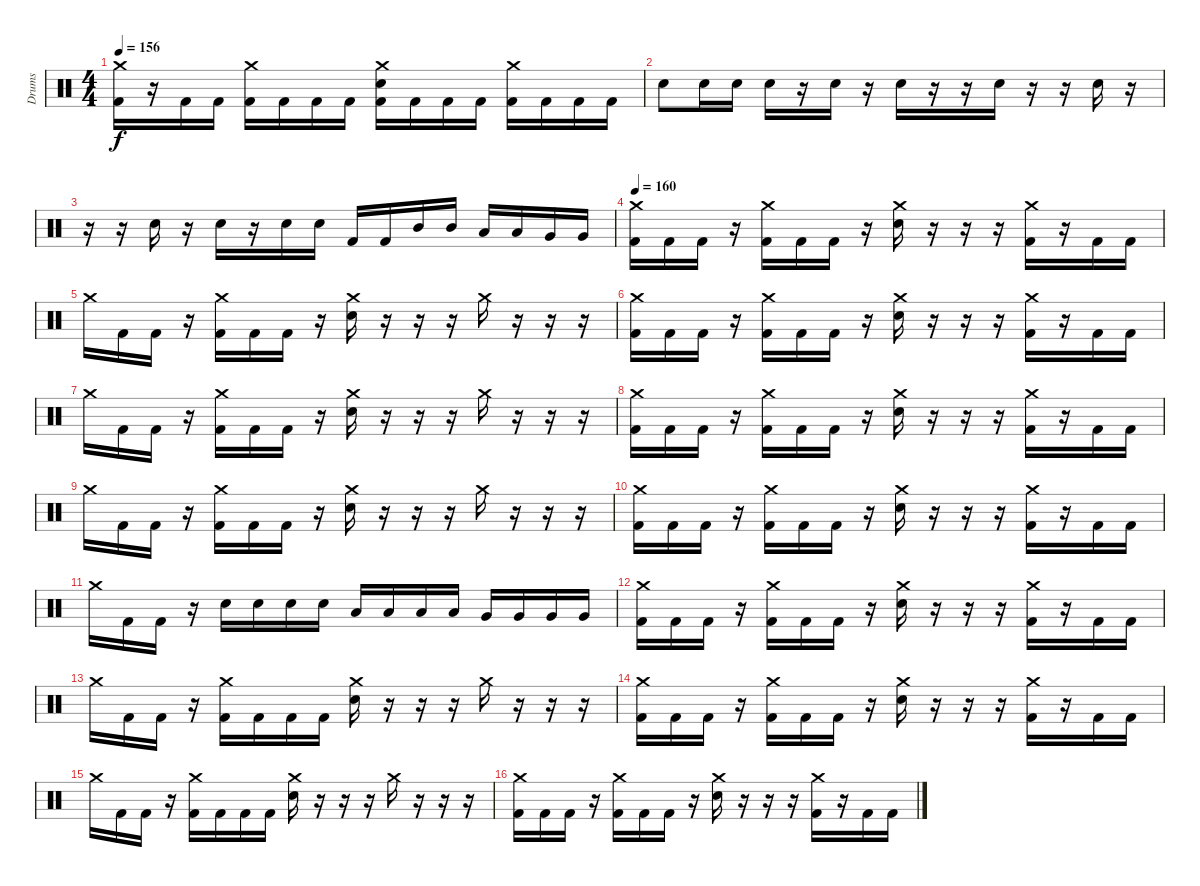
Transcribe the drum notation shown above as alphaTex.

\track ("Drums" "Drums") {instrument percussion}
\staff {score}
\articulation defaults
\ts (4 4)
\tempo 156
\clef neutral
\ks c
("Crash medium (hit)" "Kick (hit) 2").16{dy f} r.16 "Kick (hit) 2".16 "Kick (hit) 2".16 ("Crash medium (hit)" "Kick (hit) 2").16 "Kick (hit) 2".16 "Kick (hit) 2".16 "Kick (hit) 2".16 ("Crash medium (hit)" "Electric Snare (hit)" "Kick (hit) 2").16 "Kick (hit) 2".16 "Kick (hit) 2".16 "Kick (hit) 2".16 ("Crash medium (hit)" "Kick (hit) 2").16 "Kick (hit) 2".16 "Kick (hit) 2".16 "Kick (hit) 2".16 |
"Electric Snare (hit)".8 "Electric Snare (hit)".16 "Electric Snare (hit)".16 "Electric Snare (hit)".16 r.16 "Electric Snare (hit)".16 r.16 "Electric Snare (hit)".16 r.16 r.16 "Electric Snare (hit)".16 r.16 r.16 "Electric Snare (hit)".16 r.16 |
r.16 r.16 "Electric Snare (hit)".16 r.16 "Electric Snare (hit)".16 r.16 "Electric Snare (hit)".16 "Electric Snare (hit)".16 "Kick (hit) 2".16 "Kick (hit) 2".16 "Mid Tom (hit)".16 "Mid Tom (hit)".16 "Low Tom (hit)".16 "Low Tom (hit)".16 "Very Low Tom (hit)".16 "Very Low Tom (hit)".16 |
\tempo 160
("Crash medium (hit)" "Kick (hit) 2").16 "Kick (hit) 2".16 "Kick (hit) 2".16 r.16 ("Crash medium (hit)" "Kick (hit) 2").16 "Kick (hit) 2".16 "Kick (hit) 2".16 r.16 ("Crash medium (hit)" "Electric Snare (hit)").16 r.16 r.16 r.16 ("Crash medium (hit)" "Kick (hit) 2").16 r.16 "Kick (hit) 2".16 "Kick (hit) 2".16 |
"Crash medium (hit)".16 "Kick (hit) 2".16 "Kick (hit) 2".16 r.16 ("Crash medium (hit)" "Kick (hit) 2").16 "Kick (hit) 2".16 "Kick (hit) 2".16 r.16 ("Crash medium (hit)" "Electric Snare (hit)").16 r.16 r.16 r.16 "Crash medium (hit)".16 r.16 r.16 r.16 |
("Crash medium (hit)" "Kick (hit) 2").16 "Kick (hit) 2".16 "Kick (hit) 2".16 r.16 ("Crash medium (hit)" "Kick (hit) 2").16 "Kick (hit) 2".16 "Kick (hit) 2".16 r.16 ("Crash medium (hit)" "Electric Snare (hit)").16 r.16 r.16 r.16 ("Crash medium (hit)" "Kick (hit) 2").16 r.16 "Kick (hit) 2".16 "Kick (hit) 2".16 |
"Crash medium (hit)".16 "Kick (hit) 2".16 "Kick (hit) 2".16 r.16 ("Crash medium (hit)" "Kick (hit) 2").16 "Kick (hit) 2".16 "Kick (hit) 2".16 r.16 ("Crash medium (hit)" "Electric Snare (hit)").16 r.16 r.16 r.16 "Crash medium (hit)".16 r.16 r.16 r.16 |
("Crash medium (hit)" "Kick (hit) 2").16 "Kick (hit) 2".16 "Kick (hit) 2".16 r.16 ("Crash medium (hit)" "Kick (hit) 2").16 "Kick (hit) 2".16 "Kick (hit) 2".16 r.16 ("Crash medium (hit)" "Electric Snare (hit)").16 r.16 r.16 r.16 ("Crash medium (hit)" "Kick (hit) 2").16 r.16 "Kick (hit) 2".16 "Kick (hit) 2".16 |
"Crash medium (hit)".16 "Kick (hit) 2".16 "Kick (hit) 2".16 r.16 ("Crash medium (hit)" "Kick (hit) 2").16 "Kick (hit) 2".16 "Kick (hit) 2".16 r.16 ("Crash medium (hit)" "Electric Snare (hit)").16 r.16 r.16 r.16 "Crash medium (hit)".16 r.16 r.16 r.16 |
("Crash medium (hit)" "Kick (hit) 2").16 "Kick (hit) 2".16 "Kick (hit) 2".16 r.16 ("Crash medium (hit)" "Kick (hit) 2").16 "Kick (hit) 2".16 "Kick (hit) 2".16 r.16 ("Crash medium (hit)" "Electric Snare (hit)").16 r.16 r.16 r.16 ("Crash medium (hit)" "Kick (hit) 2").16 r.16 "Kick (hit) 2".16 "Kick (hit) 2".16 |
"Crash medium (hit)".16 "Kick (hit) 2".16 "Kick (hit) 2".16 r.16 "Electric Snare (hit)".16 "Electric Snare (hit)".16 "Electric Snare (hit)".16 "Electric Snare (hit)".16 "Low Tom (hit)".16 "Low Tom (hit)".16 "Low Tom (hit)".16 "Low Tom (hit)".16 "Very Low Tom (hit)".16 "Very Low Tom (hit)".16 "Very Low Tom (hit)".16 "Very Low Tom (hit)".16 |
("Crash medium (hit)" "Kick (hit) 2").16 "Kick (hit) 2".16 "Kick (hit) 2".16 r.16 ("Crash medium (hit)" "Kick (hit) 2").16 "Kick (hit) 2".16 "Kick (hit) 2".16 r.16 ("Crash medium (hit)" "Electric Snare (hit)").16 r.16 r.16 r.16 ("Crash medium (hit)" "Kick (hit) 2").16 r.16 "Kick (hit) 2".16 "Kick (hit) 2".16 |
"Crash medium (hit)".16 "Kick (hit) 2".16 "Kick (hit) 2".16 r.16 ("Crash medium (hit)" "Kick (hit) 2").16 "Kick (hit) 2".16 "Kick (hit) 2".16 "Kick (hit) 2".16 ("Crash medium (hit)" "Electric Snare (hit)").16 r.16 r.16 r.16 "Crash medium (hit)".16 r.16 r.16 r.16 |
("Crash medium (hit)" "Kick (hit) 2").16 "Kick (hit) 2".16 "Kick (hit) 2".16 r.16 ("Crash medium (hit)" "Kick (hit) 2").16 "Kick (hit) 2".16 "Kick (hit) 2".16 r.16 ("Crash medium (hit)" "Electric Snare (hit)").16 r.16 r.16 r.16 ("Crash medium (hit)" "Kick (hit) 2").16 r.16 "Kick (hit) 2".16 "Kick (hit) 2".16 |
"Crash medium (hit)".16 "Kick (hit) 2".16 "Kick (hit) 2".16 r.16 ("Crash medium (hit)" "Kick (hit) 2").16 "Kick (hit) 2".16 "Kick (hit) 2".16 "Kick (hit) 2".16 ("Crash medium (hit)" "Electric Snare (hit)").16 r.16 r.16 r.16 "Crash medium (hit)".16 r.16 r.16 r.16 |
("Crash medium (hit)" "Kick (hit) 2").16 "Kick (hit) 2".16 "Kick (hit) 2".16 r.16 ("Crash medium (hit)" "Kick (hit) 2").16 "Kick (hit) 2".16 "Kick (hit) 2".16 r.16 ("Crash medium (hit)" "Electric Snare (hit)").16 r.16 r.16 r.16 ("Crash medium (hit)" "Kick (hit) 2").16 r.16 "Kick (hit) 2".16 "Kick (hit) 2".16
